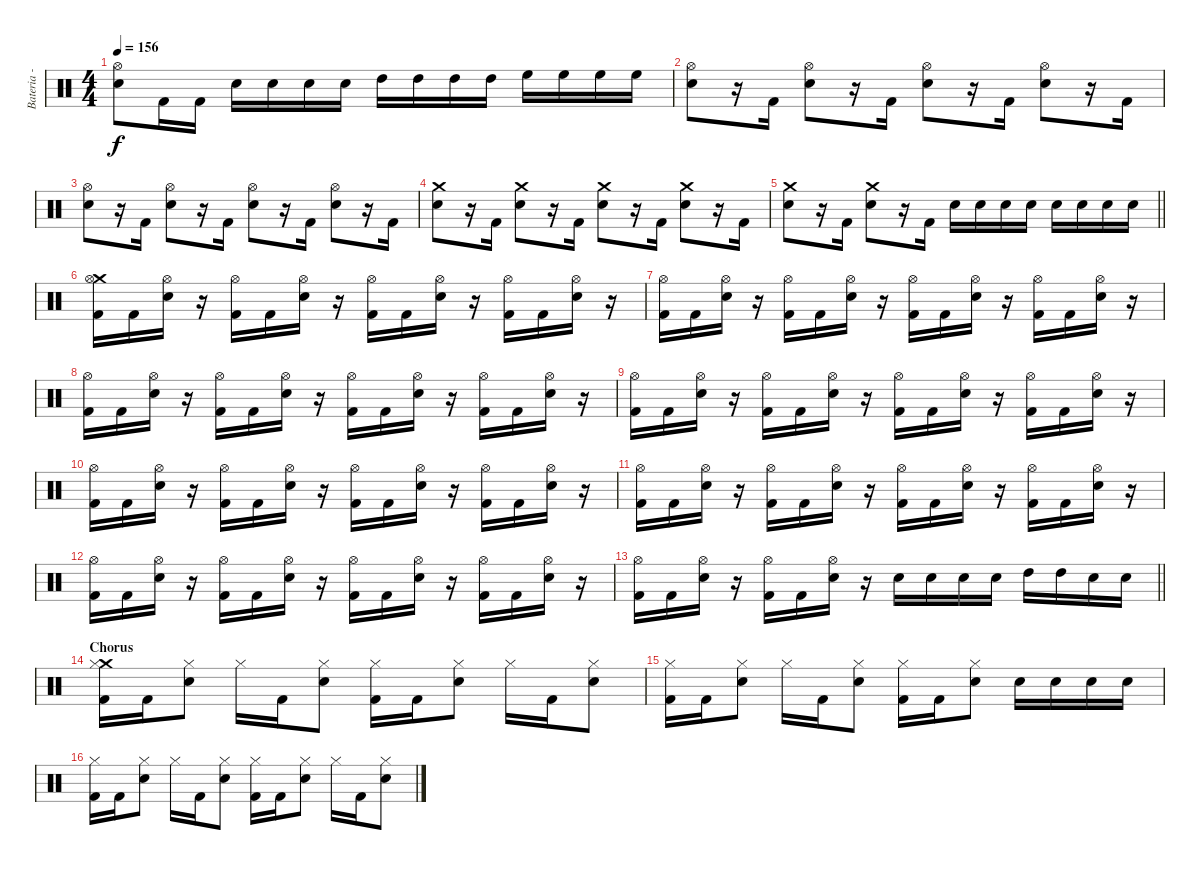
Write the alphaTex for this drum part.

\track ("Bateria - Larzon" "Bateria - ") {instrument percussion}
\staff {score}
\articulation defaults
\ts (4 4)
\tempo 156
\clef neutral
\ks c
("Snare (hit) 2" "Hi-Hat (open)").8{dy f} "Kick (hit) 2".16 "Kick (hit) 2".16 "Snare (hit) 2".16 "Snare (hit) 2".16 "Snare (hit) 2".16 "Snare (hit) 2".16 "High Tom (hit)".16 "High Tom (hit)".16 "High Tom (hit)".16 "High Tom (hit)".16 "High Floor Tom (hit)".16 "High Floor Tom (hit)".16 "High Floor Tom (hit)".16 "High Floor Tom (hit)".16 |
("Snare (hit) 2" "Hi-Hat (open)").8 r.16 "Kick (hit) 2".16 ("Snare (hit) 2" "Hi-Hat (open)").8 r.16 "Kick (hit) 2".16 ("Snare (hit) 2" "Hi-Hat (open)").8 r.16 "Kick (hit) 2".16 ("Snare (hit) 2" "Hi-Hat (open)").8 r.16 "Kick (hit) 2".16 |
("Snare (hit) 2" "Hi-Hat (open)").8 r.16 "Kick (hit) 2".16 ("Snare (hit) 2" "Hi-Hat (open)").8 r.16 "Kick (hit) 2".16 ("Snare (hit) 2" "Hi-Hat (open)").8 r.16 "Kick (hit) 2".16 ("Snare (hit) 2" "Hi-Hat (open)").8 r.16 "Kick (hit) 2".16 |
("Snare (hit) 2" "Crash medium (hit)").8 r.16 "Kick (hit) 2".16 ("Snare (hit) 2" "Crash medium (hit)").8 r.16 "Kick (hit) 2".16 ("Snare (hit) 2" "Crash medium (hit)").8 r.16 "Kick (hit) 2".16 ("Snare (hit) 2" "Crash medium (hit)").8 r.16 "Kick (hit) 2".16 |
\barLineRight lightlight
("Snare (hit) 2" "Crash medium (hit)").8 r.16 "Kick (hit) 2".16 ("Snare (hit) 2" "Crash medium (hit)").8 r.16 "Kick (hit) 2".16 "Snare (hit) 2".16 "Snare (hit) 2".16 "Snare (hit) 2".16 "Snare (hit) 2".16 "Snare (hit) 2".16 "Snare (hit) 2".16 "Snare (hit) 2".16 "Snare (hit) 2".16 |
("Kick (hit) 2" "Crash medium (hit)" "Hi-Hat (open)").16 "Kick (hit) 2".16 ("Snare (hit) 2" "Hi-Hat (open)").16 r.16 ("Kick (hit) 2" "Hi-Hat (open)").16 "Kick (hit) 2".16 ("Snare (hit) 2" "Hi-Hat (open)").16 r.16 ("Kick (hit) 2" "Hi-Hat (open)").16 "Kick (hit) 2".16 ("Snare (hit) 2" "Hi-Hat (open)").16 r.16 ("Kick (hit) 2" "Hi-Hat (open)").16 "Kick (hit) 2".16 ("Snare (hit) 2" "Hi-Hat (open)").16 r.16 |
("Kick (hit) 2" "Hi-Hat (open)").16 "Kick (hit) 2".16 ("Snare (hit) 2" "Hi-Hat (open)").16 r.16 ("Kick (hit) 2" "Hi-Hat (open)").16 "Kick (hit) 2".16 ("Snare (hit) 2" "Hi-Hat (open)").16 r.16 ("Kick (hit) 2" "Hi-Hat (open)").16 "Kick (hit) 2".16 ("Snare (hit) 2" "Hi-Hat (open)").16 r.16 ("Kick (hit) 2" "Hi-Hat (open)").16 "Kick (hit) 2".16 ("Snare (hit) 2" "Hi-Hat (open)").16 r.16 |
("Kick (hit) 2" "Hi-Hat (open)").16 "Kick (hit) 2".16 ("Snare (hit) 2" "Hi-Hat (open)").16 r.16 ("Kick (hit) 2" "Hi-Hat (open)").16 "Kick (hit) 2".16 ("Snare (hit) 2" "Hi-Hat (open)").16 r.16 ("Kick (hit) 2" "Hi-Hat (open)").16 "Kick (hit) 2".16 ("Snare (hit) 2" "Hi-Hat (open)").16 r.16 ("Kick (hit) 2" "Hi-Hat (open)").16 "Kick (hit) 2".16 ("Snare (hit) 2" "Hi-Hat (open)").16 r.16 |
("Kick (hit) 2" "Hi-Hat (open)").16 "Kick (hit) 2".16 ("Snare (hit) 2" "Hi-Hat (open)").16 r.16 ("Kick (hit) 2" "Hi-Hat (open)").16 "Kick (hit) 2".16 ("Snare (hit) 2" "Hi-Hat (open)").16 r.16 ("Kick (hit) 2" "Hi-Hat (open)").16 "Kick (hit) 2".16 ("Snare (hit) 2" "Hi-Hat (open)").16 r.16 ("Kick (hit) 2" "Hi-Hat (open)").16 "Kick (hit) 2".16 ("Snare (hit) 2" "Hi-Hat (open)").16 r.16 |
("Kick (hit) 2" "Hi-Hat (open)").16 "Kick (hit) 2".16 ("Snare (hit) 2" "Hi-Hat (open)").16 r.16 ("Kick (hit) 2" "Hi-Hat (open)").16 "Kick (hit) 2".16 ("Snare (hit) 2" "Hi-Hat (open)").16 r.16 ("Kick (hit) 2" "Hi-Hat (open)").16 "Kick (hit) 2".16 ("Snare (hit) 2" "Hi-Hat (open)").16 r.16 ("Kick (hit) 2" "Hi-Hat (open)").16 "Kick (hit) 2".16 ("Snare (hit) 2" "Hi-Hat (open)").16 r.16 |
("Kick (hit) 2" "Hi-Hat (open)").16 "Kick (hit) 2".16 ("Snare (hit) 2" "Hi-Hat (open)").16 r.16 ("Kick (hit) 2" "Hi-Hat (open)").16 "Kick (hit) 2".16 ("Snare (hit) 2" "Hi-Hat (open)").16 r.16 ("Kick (hit) 2" "Hi-Hat (open)").16 "Kick (hit) 2".16 ("Snare (hit) 2" "Hi-Hat (open)").16 r.16 ("Kick (hit) 2" "Hi-Hat (open)").16 "Kick (hit) 2".16 ("Snare (hit) 2" "Hi-Hat (open)").16 r.16 |
("Kick (hit) 2" "Hi-Hat (open)").16 "Kick (hit) 2".16 ("Snare (hit) 2" "Hi-Hat (open)").16 r.16 ("Kick (hit) 2" "Hi-Hat (open)").16 "Kick (hit) 2".16 ("Snare (hit) 2" "Hi-Hat (open)").16 r.16 ("Kick (hit) 2" "Hi-Hat (open)").16 "Kick (hit) 2".16 ("Snare (hit) 2" "Hi-Hat (open)").16 r.16 ("Kick (hit) 2" "Hi-Hat (open)").16 "Kick (hit) 2".16 ("Snare (hit) 2" "Hi-Hat (open)").16 r.16 |
\barLineRight lightlight
("Kick (hit) 2" "Hi-Hat (open)").16 "Kick (hit) 2".16 ("Snare (hit) 2" "Hi-Hat (open)").16 r.16 ("Kick (hit) 2" "Hi-Hat (open)").16 "Kick (hit) 2".16 ("Snare (hit) 2" "Hi-Hat (open)").16 r.16 "Snare (hit) 2".16 "Snare (hit) 2".16 "Snare (hit) 2".16 "Snare (hit) 2".16 "High Tom (hit)".16 "High Tom (hit)".16 "Snare (hit) 2".16 "Snare (hit) 2".16 |
\section ("" "Chorus")
("Crash medium (hit)" "Kick (hit) 2" "Hi-Hat (closed)").16 "Kick (hit) 2".16 ("Snare (hit) 2" "Hi-Hat (closed)").8 "Hi-Hat (closed)".16 "Kick (hit) 2".16 ("Snare (hit) 2" "Hi-Hat (closed)").8 ("Kick (hit) 2" "Hi-Hat (closed)").16 "Kick (hit) 2".16 ("Snare (hit) 2" "Hi-Hat (closed)").8 "Hi-Hat (closed)".16 "Kick (hit) 2".16 ("Snare (hit) 2" "Hi-Hat (closed)").8 |
("Kick (hit) 2" "Hi-Hat (closed)").16 "Kick (hit) 2".16 ("Snare (hit) 2" "Hi-Hat (closed)").8 "Hi-Hat (closed)".16 "Kick (hit) 2".16 ("Snare (hit) 2" "Hi-Hat (closed)").8 ("Kick (hit) 2" "Hi-Hat (closed)").16 "Kick (hit) 2".16 ("Snare (hit) 2" "Hi-Hat (closed)").8 "Snare (hit) 2".16 "Snare (hit) 2".16 "Snare (hit) 2".16 "Snare (hit) 2".16 |
("Kick (hit) 2" "Hi-Hat (closed)").16 "Kick (hit) 2".16 ("Snare (hit) 2" "Hi-Hat (closed)").8 "Hi-Hat (closed)".16 "Kick (hit) 2".16 ("Snare (hit) 2" "Hi-Hat (closed)").8 ("Kick (hit) 2" "Hi-Hat (closed)").16 "Kick (hit) 2".16 ("Snare (hit) 2" "Hi-Hat (closed)").8 "Hi-Hat (closed)".16 "Kick (hit) 2".16 ("Snare (hit) 2" "Hi-Hat (closed)").8
